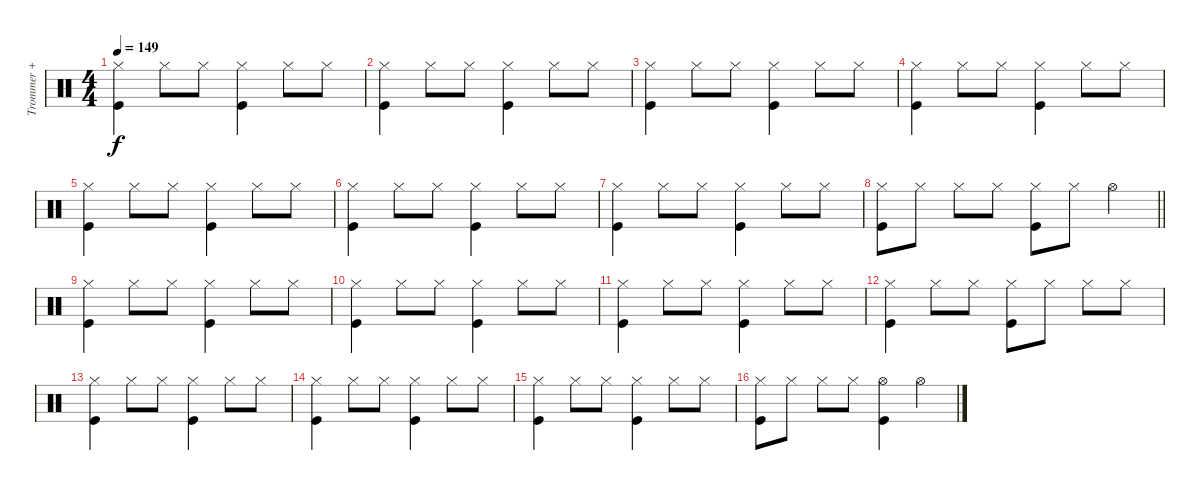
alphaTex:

\track ("Trommer + rasle-æg" "Trommer + ") {instrument percussion}
\staff {score}
\articulation defaults
\ts (4 4)
\tempo 149
\clef neutral
\ks c
("Hi-Hat (closed)" "Kick (hit)").4{dy f} "Hi-Hat (closed)".8 "Hi-Hat (closed)".8 ("Hi-Hat (closed)" "Kick (hit)").4 "Hi-Hat (closed)".8 "Hi-Hat (closed)".8 |
("Hi-Hat (closed)" "Kick (hit)").4 "Hi-Hat (closed)".8 "Hi-Hat (closed)".8 ("Hi-Hat (closed)" "Kick (hit)").4 "Hi-Hat (closed)".8 "Hi-Hat (closed)".8 |
("Hi-Hat (closed)" "Kick (hit)").4 "Hi-Hat (closed)".8 "Hi-Hat (closed)".8 ("Hi-Hat (closed)" "Kick (hit)").4 "Hi-Hat (closed)".8 "Hi-Hat (closed)".8 |
("Hi-Hat (closed)" "Kick (hit)").4 "Hi-Hat (closed)".8 "Hi-Hat (closed)".8 ("Hi-Hat (closed)" "Kick (hit)").4 "Hi-Hat (closed)".8 "Hi-Hat (closed)".8 |
("Hi-Hat (closed)" "Kick (hit)").4 "Hi-Hat (closed)".8 "Hi-Hat (closed)".8 ("Hi-Hat (closed)" "Kick (hit)").4 "Hi-Hat (closed)".8 "Hi-Hat (closed)".8 |
("Hi-Hat (closed)" "Kick (hit)").4 "Hi-Hat (closed)".8 "Hi-Hat (closed)".8 ("Hi-Hat (closed)" "Kick (hit)").4 "Hi-Hat (closed)".8 "Hi-Hat (closed)".8 |
("Hi-Hat (closed)" "Kick (hit)").4 "Hi-Hat (closed)".8 "Hi-Hat (closed)".8 ("Hi-Hat (closed)" "Kick (hit)").4 "Hi-Hat (closed)".8 "Hi-Hat (closed)".8 |
\barLineRight lightlight
("Hi-Hat (closed)" "Kick (hit)").8 "Hi-Hat (closed)".8 "Hi-Hat (closed)".8 "Hi-Hat (closed)".8 ("Hi-Hat (closed)" "Kick (hit)").8 "Hi-Hat (closed)".8 "Hi-Hat (open)".4 |
("Hi-Hat (closed)" "Kick (hit)").4 "Hi-Hat (closed)".8 "Hi-Hat (closed)".8 ("Hi-Hat (closed)" "Kick (hit)").4 "Hi-Hat (closed)".8 "Hi-Hat (closed)".8 |
("Hi-Hat (closed)" "Kick (hit)").4 "Hi-Hat (closed)".8 "Hi-Hat (closed)".8 ("Hi-Hat (closed)" "Kick (hit)").4 "Hi-Hat (closed)".8 "Hi-Hat (closed)".8 |
("Hi-Hat (closed)" "Kick (hit)").4 "Hi-Hat (closed)".8 "Hi-Hat (closed)".8 ("Hi-Hat (closed)" "Kick (hit)").4 "Hi-Hat (closed)".8 "Hi-Hat (closed)".8 |
("Hi-Hat (closed)" "Kick (hit)").4 "Hi-Hat (closed)".8 "Hi-Hat (closed)".8 ("Hi-Hat (closed)" "Kick (hit)").8 "Hi-Hat (closed)".8 "Hi-Hat (closed)".8 "Hi-Hat (closed)".8 |
("Hi-Hat (closed)" "Kick (hit)").4 "Hi-Hat (closed)".8 "Hi-Hat (closed)".8 ("Hi-Hat (closed)" "Kick (hit)").4 "Hi-Hat (closed)".8 "Hi-Hat (closed)".8 |
("Hi-Hat (closed)" "Kick (hit)").4 "Hi-Hat (closed)".8 "Hi-Hat (closed)".8 ("Hi-Hat (closed)" "Kick (hit)").4 "Hi-Hat (closed)".8 "Hi-Hat (closed)".8 |
("Hi-Hat (closed)" "Kick (hit)").4 "Hi-Hat (closed)".8 "Hi-Hat (closed)".8 ("Hi-Hat (closed)" "Kick (hit)").4 "Hi-Hat (closed)".8 "Hi-Hat (closed)".8 |
("Hi-Hat (closed)" "Kick (hit)").8 "Hi-Hat (closed)".8 "Hi-Hat (closed)".8 "Hi-Hat (closed)".8 ("Hi-Hat (open)" "Kick (hit)").4 "Hi-Hat (open)".4
